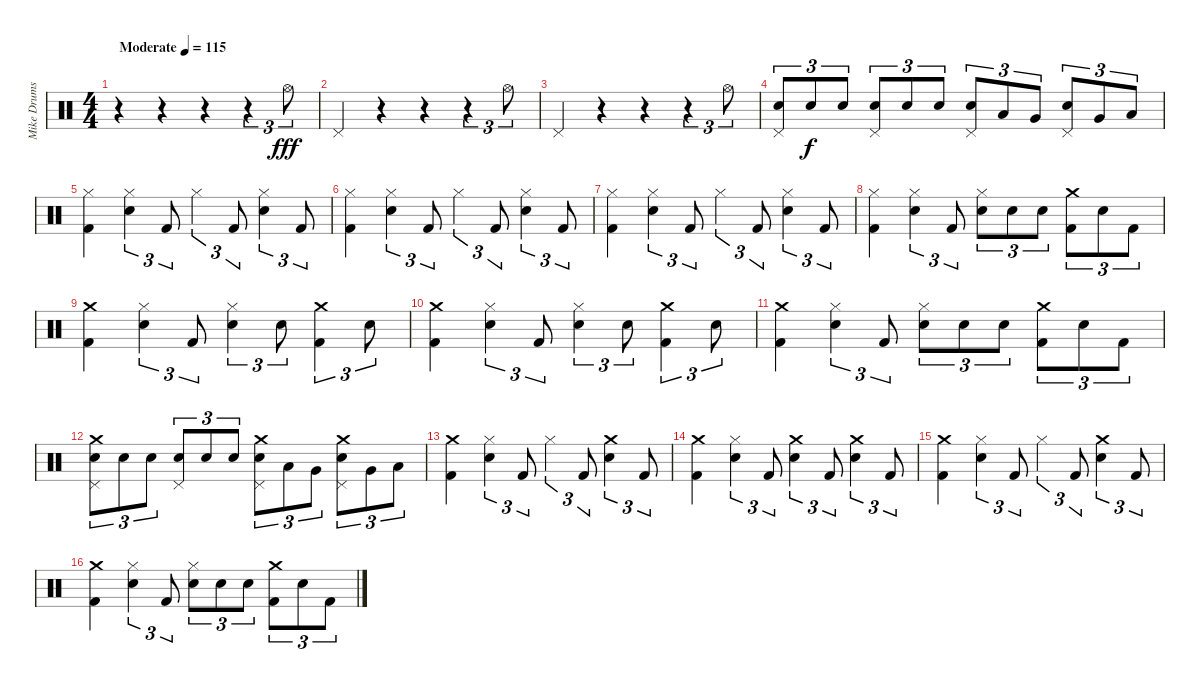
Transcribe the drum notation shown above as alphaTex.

\track ("Mike Drums" "Mike Drums") {instrument percussion}
\staff {score}
\articulation defaults
\ts (4 4)
\tempo (115 "Moderate")
\clef neutral
\ks c
r.4{dy fff} r.4 r.4 r.4{tu (3 2)} "Hi-Hat (open)".8{tu (3 2)} |
"Pedal Hi-Hat (hit)".4 r.4 r.4 r.4{tu (3 2)} "Hi-Hat (open)".8{tu (3 2)} |
"Pedal Hi-Hat (hit)".4 r.4 r.4 r.4{tu (3 2)} "Hi-Hat (open)".8{tu (3 2)} |
("Pedal Hi-Hat (hit)" "Electric Snare (hit)").8{tu (3 2)} "Electric Snare (hit)".8{tu (3 2) dy f} "Electric Snare (hit)".8{tu (3 2)} ("Pedal Hi-Hat (hit)" "Electric Snare (hit)").8{tu (3 2)} "Electric Snare (hit)".8{tu (3 2)} "Electric Snare (hit)".8{tu (3 2)} ("Pedal Hi-Hat (hit)" "Electric Snare (hit)").8{tu (3 2)} "Low Tom (hit)".8{tu (3 2)} "Very Low Tom (hit)".8{tu (3 2)} ("Pedal Hi-Hat (hit)" "Electric Snare (hit)").8{tu (3 2)} "Very Low Tom (hit)".8{tu (3 2)} "Low Floor Tom (hit)".8{tu (3 2)} |
("Hi-Hat (closed)" "Kick (hit) 2").4 ("Hi-Hat (closed)" "Electric Snare (hit)").4{tu (3 2)} "Kick (hit) 2".8{tu (3 2)} "Hi-Hat (closed)".4{tu (3 2)} "Kick (hit) 2".8{tu (3 2)} ("Hi-Hat (closed)" "Electric Snare (hit)").4{tu (3 2)} "Kick (hit) 2".8{tu (3 2)} |
("Hi-Hat (closed)" "Kick (hit) 2").4 ("Hi-Hat (closed)" "Electric Snare (hit)").4{tu (3 2)} "Kick (hit) 2".8{tu (3 2)} "Hi-Hat (closed)".4{tu (3 2)} "Kick (hit) 2".8{tu (3 2)} ("Hi-Hat (closed)" "Electric Snare (hit)").4{tu (3 2)} "Kick (hit) 2".8{tu (3 2)} |
("Hi-Hat (closed)" "Kick (hit) 2").4 ("Hi-Hat (closed)" "Electric Snare (hit)").4{tu (3 2)} "Kick (hit) 2".8{tu (3 2)} "Hi-Hat (closed)".4{tu (3 2)} "Kick (hit) 2".8{tu (3 2)} ("Hi-Hat (closed)" "Electric Snare (hit)").4{tu (3 2)} "Kick (hit) 2".8{tu (3 2)} |
("Hi-Hat (closed)" "Kick (hit) 2").4 ("Hi-Hat (closed)" "Electric Snare (hit)").4{tu (3 2)} "Kick (hit) 2".8{tu (3 2)} ("Hi-Hat (closed)" "Electric Snare (hit)").8{tu (3 2)} "Electric Snare (hit)".8{tu (3 2)} "Electric Snare (hit)".8{tu (3 2)} ("Crash medium (hit)" "Kick (hit) 2").8{tu (3 2)} "Electric Snare (hit)".8{tu (3 2)} "Kick (hit) 2".8{tu (3 2)} |
("Crash medium (hit)" "Kick (hit) 2").4 ("Hi-Hat (closed)" "Electric Snare (hit)").4{tu (3 2)} "Kick (hit) 2".8{tu (3 2)} ("Hi-Hat (closed)" "Electric Snare (hit)").4{tu (3 2)} "Electric Snare (hit)".8{tu (3 2)} ("Crash medium (hit)" "Kick (hit) 2").4{tu (3 2)} "Electric Snare (hit)".8{tu (3 2)} |
("Crash medium (hit)" "Kick (hit) 2").4 ("Hi-Hat (closed)" "Electric Snare (hit)").4{tu (3 2)} "Kick (hit) 2".8{tu (3 2)} ("Hi-Hat (closed)" "Electric Snare (hit)").4{tu (3 2)} "Electric Snare (hit)".8{tu (3 2)} ("Crash medium (hit)" "Kick (hit) 2").4{tu (3 2)} "Electric Snare (hit)".8{tu (3 2)} |
("Crash medium (hit)" "Kick (hit) 2").4 ("Hi-Hat (closed)" "Electric Snare (hit)").4{tu (3 2)} "Kick (hit) 2".8{tu (3 2)} ("Hi-Hat (closed)" "Electric Snare (hit)").8{tu (3 2)} "Electric Snare (hit)".8{tu (3 2)} "Electric Snare (hit)".8{tu (3 2)} ("Crash medium (hit)" "Kick (hit) 2").8{tu (3 2)} "Electric Snare (hit)".8{tu (3 2)} "Kick (hit) 2".8{tu (3 2)} |
("Crash medium (hit)" "Pedal Hi-Hat (hit)" "Electric Snare (hit)").8{tu (3 2)} "Electric Snare (hit)".8{tu (3 2)} "Electric Snare (hit)".8{tu (3 2)} ("Pedal Hi-Hat (hit)" "Electric Snare (hit)").8{tu (3 2)} "Electric Snare (hit)".8{tu (3 2)} "Electric Snare (hit)".8{tu (3 2)} ("Crash medium (hit)" "Pedal Hi-Hat (hit)" "Electric Snare (hit)").8{tu (3 2)} "Low Tom (hit)".8{tu (3 2)} "Very Low Tom (hit)".8{tu (3 2)} ("Crash medium (hit)" "Pedal Hi-Hat (hit)" "Electric Snare (hit)").8{tu (3 2)} "Very Low Tom (hit)".8{tu (3 2)} "Low Floor Tom (hit)".8{tu (3 2)} |
("Crash medium (hit)" "Kick (hit) 2").4 ("Hi-Hat (closed)" "Electric Snare (hit)").4{tu (3 2)} "Kick (hit) 2".8{tu (3 2)} "Hi-Hat (closed)".4{tu (3 2)} "Kick (hit) 2".8{tu (3 2)} ("Crash medium (hit)" "Electric Snare (hit)").4{tu (3 2)} "Kick (hit) 2".8{tu (3 2)} |
("Crash medium (hit)" "Kick (hit) 2").4 ("Hi-Hat (closed)" "Electric Snare (hit)").4{tu (3 2)} "Kick (hit) 2".8{tu (3 2)} ("Crash medium (hit)" "Electric Snare (hit)").4{tu (3 2)} "Kick (hit) 2".8{tu (3 2)} ("Crash medium (hit)" "Electric Snare (hit)").4{tu (3 2)} "Kick (hit) 2".8{tu (3 2)} |
("Crash medium (hit)" "Kick (hit) 2").4 ("Hi-Hat (closed)" "Electric Snare (hit)").4{tu (3 2)} "Kick (hit) 2".8{tu (3 2)} "Hi-Hat (closed)".4{tu (3 2)} "Kick (hit) 2".8{tu (3 2)} ("Crash medium (hit)" "Electric Snare (hit)").4{tu (3 2)} "Kick (hit) 2".8{tu (3 2)} |
("Crash medium (hit)" "Kick (hit) 2").4 ("Hi-Hat (closed)" "Electric Snare (hit)").4{tu (3 2)} "Kick (hit) 2".8{tu (3 2)} ("Hi-Hat (closed)" "Electric Snare (hit)").8{tu (3 2)} "Electric Snare (hit)".8{tu (3 2)} "Electric Snare (hit)".8{tu (3 2)} ("Crash medium (hit)" "Kick (hit) 2").8{tu (3 2)} "Electric Snare (hit)".8{tu (3 2)} "Kick (hit) 2".8{tu (3 2)}
